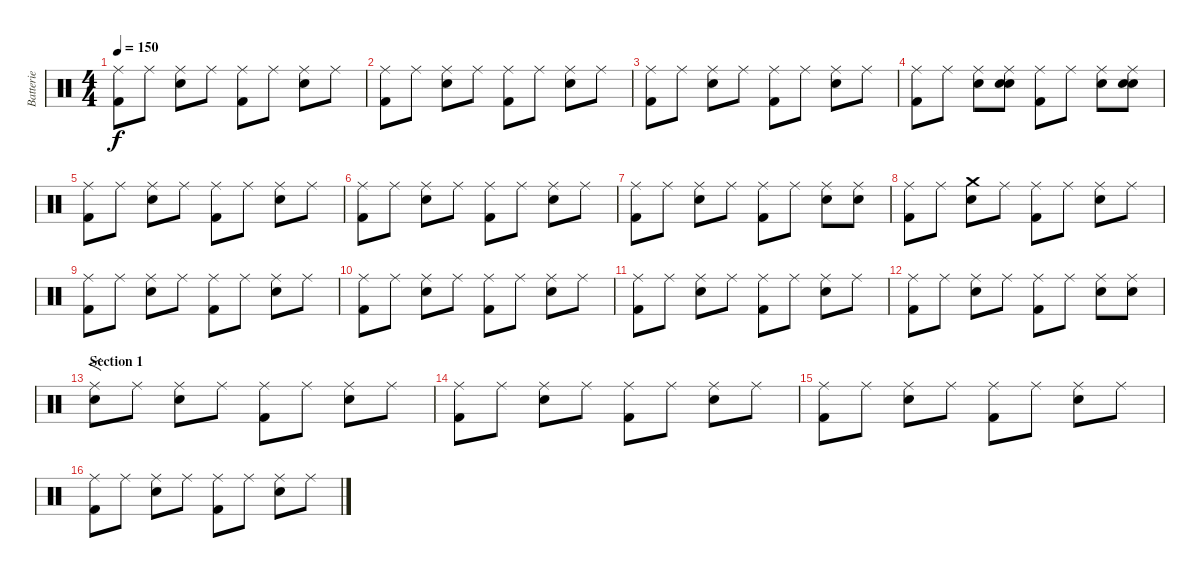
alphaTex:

\track ("Batterie" "Batterie") {instrument percussion}
\staff {score}
\articulation defaults
\ts (4 4)
\tempo 150
\clef neutral
\ks c
("Ride (middle)" "Kick (hit) 2").8{dy f} "Ride (middle)".8 ("Ride (middle)" "Electric Snare (hit)").8 "Ride (middle)".8 ("Ride (middle)" "Kick (hit) 2").8 "Ride (middle)".8 ("Ride (middle)" "Electric Snare (hit)").8 "Ride (middle)".8 |
("Ride (middle)" "Kick (hit) 2").8 "Ride (middle)".8 ("Ride (middle)" "Electric Snare (hit)").8 "Ride (middle)".8 ("Ride (middle)" "Kick (hit) 2").8 "Ride (middle)".8 ("Ride (middle)" "Electric Snare (hit)").8 "Ride (middle)".8 |
("Ride (middle)" "Kick (hit) 2").8 "Ride (middle)".8 ("Ride (middle)" "Electric Snare (hit)").8 "Ride (middle)".8 ("Ride (middle)" "Kick (hit) 2").8 "Ride (middle)".8 ("Ride (middle)" "Electric Snare (hit)").8 "Ride (middle)".8 |
("Ride (middle)" "Kick (hit) 2").8 "Ride (middle)".8 ("Ride (middle)" "Electric Snare (hit)").8 ("Ride (middle)" "Electric Snare (hit)" "Electric Snare (hit)").8 ("Ride (middle)" "Kick (hit) 2").8 "Ride (middle)".8 ("Ride (middle)" "Electric Snare (hit)").8 ("Ride (middle)" "Electric Snare (hit)" "Electric Snare (hit)").8 |
("Ride (middle)" "Kick (hit) 2").8 "Ride (middle)".8 ("Ride (middle)" "Electric Snare (hit)").8 "Ride (middle)".8 ("Ride (middle)" "Kick (hit) 2").8 "Ride (middle)".8 ("Ride (middle)" "Electric Snare (hit)").8 "Ride (middle)".8 |
("Ride (middle)" "Kick (hit) 2").8 "Ride (middle)".8 ("Ride (middle)" "Electric Snare (hit)").8 "Ride (middle)".8 ("Ride (middle)" "Kick (hit) 2").8 "Ride (middle)".8 ("Ride (middle)" "Electric Snare (hit)").8 "Ride (middle)".8 |
("Ride (middle)" "Kick (hit) 2").8 "Ride (middle)".8 ("Ride (middle)" "Electric Snare (hit)").8 "Ride (middle)".8 ("Ride (middle)" "Kick (hit) 2").8 "Ride (middle)".8 ("Ride (middle)" "Electric Snare (hit)").8 ("Ride (middle)" "Electric Snare (hit)").8 |
("Ride (middle)" "Kick (hit) 2").8 "Ride (middle)".8 ("Crash medium (hit)" "Electric Snare (hit)").8 "Ride (middle)".8 ("Ride (middle)" "Kick (hit) 2").8 "Ride (middle)".8 ("Ride (middle)" "Electric Snare (hit)").8 "Ride (middle)".8 |
("Ride (middle)" "Kick (hit) 2").8 "Ride (middle)".8 ("Ride (middle)" "Electric Snare (hit)").8 "Ride (middle)".8 ("Ride (middle)" "Kick (hit) 2").8 "Ride (middle)".8 ("Ride (middle)" "Electric Snare (hit)").8 "Ride (middle)".8 |
("Ride (middle)" "Kick (hit) 2").8 "Ride (middle)".8 ("Ride (middle)" "Electric Snare (hit)").8 "Ride (middle)".8 ("Ride (middle)" "Kick (hit) 2").8 "Ride (middle)".8 ("Ride (middle)" "Electric Snare (hit)").8 "Ride (middle)".8 |
("Ride (middle)" "Kick (hit) 2").8 "Ride (middle)".8 ("Ride (middle)" "Electric Snare (hit)").8 "Ride (middle)".8 ("Ride (middle)" "Kick (hit) 2").8 "Ride (middle)".8 ("Ride (middle)" "Electric Snare (hit)").8 "Ride (middle)".8 |
("Ride (middle)" "Kick (hit) 2").8 "Ride (middle)".8 ("Ride (middle)" "Electric Snare (hit)").8 "Ride (middle)".8 ("Ride (middle)" "Kick (hit) 2").8 "Ride (middle)".8 ("Ride (middle)" "Electric Snare (hit)").8 ("Ride (middle)" "Electric Snare (hit)").8 |
\section ("" "Section 1")
("Ride (middle)" "Electric Snare (hit)").8{f} "Ride (middle)".8 ("Ride (middle)" "Electric Snare (hit)").8 "Ride (middle)".8 ("Ride (middle)" "Kick (hit) 2").8 "Ride (middle)".8 ("Ride (middle)" "Electric Snare (hit)").8 "Ride (middle)".8 |
("Ride (middle)" "Kick (hit) 2").8 "Ride (middle)".8 ("Ride (middle)" "Electric Snare (hit)").8 "Ride (middle)".8 ("Ride (middle)" "Kick (hit) 2").8 "Ride (middle)".8 ("Ride (middle)" "Electric Snare (hit)").8 "Ride (middle)".8 |
("Ride (middle)" "Kick (hit) 2").8 "Ride (middle)".8 ("Ride (middle)" "Electric Snare (hit)").8 "Ride (middle)".8 ("Ride (middle)" "Kick (hit) 2").8 "Ride (middle)".8 ("Ride (middle)" "Electric Snare (hit)").8 "Ride (middle)".8 |
("Ride (middle)" "Kick (hit) 2").8 "Ride (middle)".8 ("Ride (middle)" "Electric Snare (hit)").8 "Ride (middle)".8 ("Ride (middle)" "Kick (hit) 2").8 "Ride (middle)".8 ("Ride (middle)" "Electric Snare (hit)").8 "Ride (middle)".8
